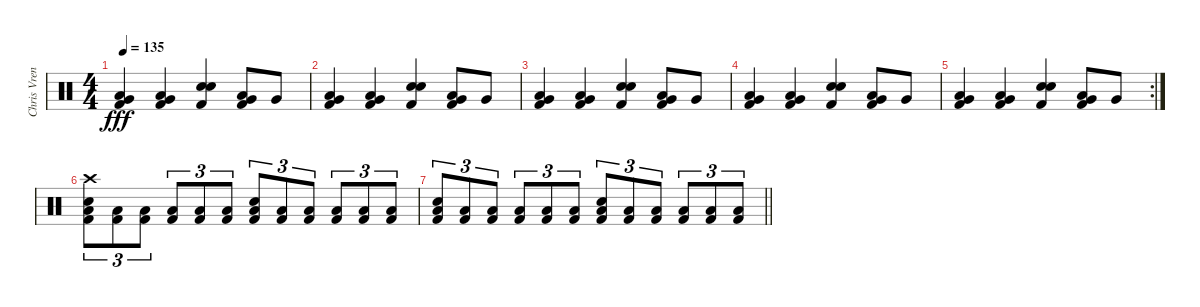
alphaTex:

\track ("Chris Vrenna (percussions)" "Chris Vren") {instrument percussion}
\staff {score}
\articulation defaults
\ts (4 4)
\tempo 135
\clef neutral
\ks c
("Very Low Tom (hit)" "Low Tom (hit)" "Kick (hit) 2").4{dy fff} ("Very Low Tom (hit)" "Low Tom (hit)" "Kick (hit) 2").4 ("Snare (hit) 2" "Electric Snare (hit)" "Kick (hit) 2").4 ("Very Low Tom (hit)" "Low Tom (hit)" "Kick (hit) 2").8 "Very Low Tom (hit)".8 |
("Very Low Tom (hit)" "Low Tom (hit)" "Kick (hit) 2").4 ("Very Low Tom (hit)" "Low Tom (hit)" "Kick (hit) 2").4 ("Snare (hit) 2" "Electric Snare (hit)" "Kick (hit) 2").4 ("Very Low Tom (hit)" "Low Tom (hit)" "Kick (hit) 2").8 "Very Low Tom (hit)".8 |
("Very Low Tom (hit)" "Low Tom (hit)" "Kick (hit) 2").4 ("Very Low Tom (hit)" "Low Tom (hit)" "Kick (hit) 2").4 ("Snare (hit) 2" "Electric Snare (hit)" "Kick (hit) 2").4 ("Very Low Tom (hit)" "Low Tom (hit)" "Kick (hit) 2").8 "Very Low Tom (hit)".8 |
("Very Low Tom (hit)" "Low Tom (hit)" "Kick (hit) 2").4 ("Very Low Tom (hit)" "Low Tom (hit)" "Kick (hit) 2").4 ("Snare (hit) 2" "Electric Snare (hit)" "Kick (hit) 2").4 ("Very Low Tom (hit)" "Low Tom (hit)" "Kick (hit) 2").8 "Very Low Tom (hit)".8 |
\rc 2
("Very Low Tom (hit)" "Low Tom (hit)" "Kick (hit) 2").4 ("Very Low Tom (hit)" "Low Tom (hit)" "Kick (hit) 2").4 ("Snare (hit) 2" "Electric Snare (hit)" "Kick (hit) 2").4 ("Very Low Tom (hit)" "Low Tom (hit)" "Kick (hit) 2").8 "Very Low Tom (hit)".8 |
("Crash high (hit)" "Snare (hit) 2" "Low Tom (hit)" "Kick (hit) 2").8{tu (3 2)} ("Low Tom (hit)" "Kick (hit) 2").8{tu (3 2)} ("Low Tom (hit)" "Kick (hit) 2").8{tu (3 2)} ("Low Tom (hit)" "Kick (hit) 2").8{tu (3 2)} ("Low Tom (hit)" "Kick (hit) 2").8{tu (3 2)} ("Low Tom (hit)" "Kick (hit) 2").8{tu (3 2)} ("Snare (hit) 2" "Low Tom (hit)" "Kick (hit) 2").8{tu (3 2)} ("Low Tom (hit)" "Kick (hit) 2").8{tu (3 2)} ("Low Tom (hit)" "Kick (hit) 2").8{tu (3 2)} ("Low Tom (hit)" "Kick (hit) 2").8{tu (3 2)} ("Low Tom (hit)" "Kick (hit) 2").8{tu (3 2)} ("Low Tom (hit)" "Kick (hit) 2").8{tu (3 2)} |
\barLineRight lightlight
("Snare (hit) 2" "Low Tom (hit)" "Kick (hit) 2").8{tu (3 2)} ("Low Tom (hit)" "Kick (hit) 2").8{tu (3 2)} ("Low Tom (hit)" "Kick (hit) 2").8{tu (3 2)} ("Low Tom (hit)" "Kick (hit) 2").8{tu (3 2)} ("Low Tom (hit)" "Kick (hit) 2").8{tu (3 2)} ("Low Tom (hit)" "Kick (hit) 2").8{tu (3 2)} ("Snare (hit) 2" "Low Tom (hit)" "Kick (hit) 2").8{tu (3 2)} ("Low Tom (hit)" "Kick (hit) 2").8{tu (3 2)} ("Low Tom (hit)" "Kick (hit) 2").8{tu (3 2)} ("Low Tom (hit)" "Kick (hit) 2").8{tu (3 2)} ("Low Tom (hit)" "Kick (hit) 2").8{tu (3 2)} ("Low Tom (hit)" "Kick (hit) 2").8{tu (3 2)}
